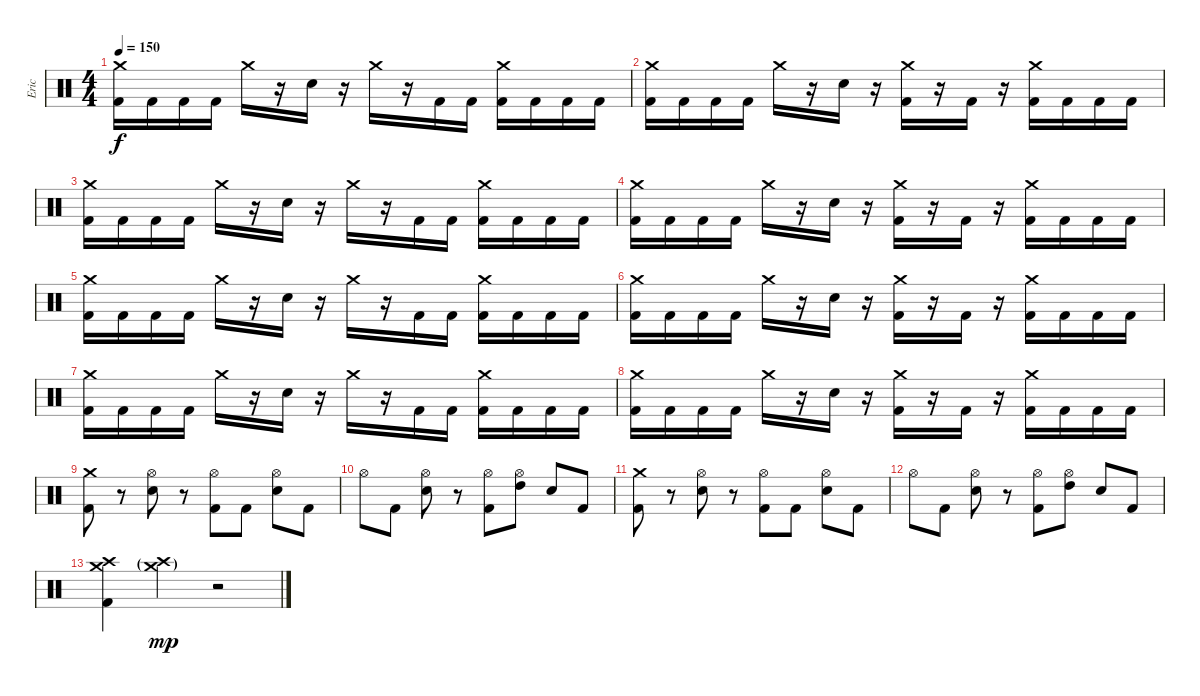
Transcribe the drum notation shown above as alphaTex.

\track ("Eric" "Eric") {instrument percussion}
\staff {score}
\articulation defaults
\ts (4 4)
\tempo 150
\clef neutral
\ks c
("Crash medium (hit)" "Kick (hit) 2").16{dy f} "Kick (hit) 2".16 "Kick (hit) 2".16 "Kick (hit) 2".16 "Crash medium (hit)".16 r.16 "Electric Snare (hit)".16 r.16 "Crash medium (hit)".16 r.16 "Kick (hit) 2".16 "Kick (hit) 2".16 ("Crash medium (hit)" "Kick (hit) 2").16 "Kick (hit) 2".16 "Kick (hit) 2".16 "Kick (hit) 2".16 |
("Crash medium (hit)" "Kick (hit) 2").16 "Kick (hit) 2".16 "Kick (hit) 2".16 "Kick (hit) 2".16 "Crash medium (hit)".16 r.16 "Electric Snare (hit)".16 r.16 ("Crash medium (hit)" "Kick (hit) 2").16 r.16 "Kick (hit) 2".16 r.16 ("Crash medium (hit)" "Kick (hit) 2").16 "Kick (hit) 2".16 "Kick (hit) 2".16 "Kick (hit) 2".16 |
("Crash medium (hit)" "Kick (hit) 2").16 "Kick (hit) 2".16 "Kick (hit) 2".16 "Kick (hit) 2".16 "Crash medium (hit)".16 r.16 "Electric Snare (hit)".16 r.16 "Crash medium (hit)".16 r.16 "Kick (hit) 2".16 "Kick (hit) 2".16 ("Crash medium (hit)" "Kick (hit) 2").16 "Kick (hit) 2".16 "Kick (hit) 2".16 "Kick (hit) 2".16 |
("Crash medium (hit)" "Kick (hit) 2").16 "Kick (hit) 2".16 "Kick (hit) 2".16 "Kick (hit) 2".16 "Crash medium (hit)".16 r.16 "Electric Snare (hit)".16 r.16 ("Crash medium (hit)" "Kick (hit) 2").16 r.16 "Kick (hit) 2".16 r.16 ("Crash medium (hit)" "Kick (hit) 2").16 "Kick (hit) 2".16 "Kick (hit) 2".16 "Kick (hit) 2".16 |
("Crash medium (hit)" "Kick (hit) 2").16 "Kick (hit) 2".16 "Kick (hit) 2".16 "Kick (hit) 2".16 "Crash medium (hit)".16 r.16 "Electric Snare (hit)".16 r.16 "Crash medium (hit)".16 r.16 "Kick (hit) 2".16 "Kick (hit) 2".16 ("Crash medium (hit)" "Kick (hit) 2").16 "Kick (hit) 2".16 "Kick (hit) 2".16 "Kick (hit) 2".16 |
("Crash medium (hit)" "Kick (hit) 2").16 "Kick (hit) 2".16 "Kick (hit) 2".16 "Kick (hit) 2".16 "Crash medium (hit)".16 r.16 "Electric Snare (hit)".16 r.16 ("Crash medium (hit)" "Kick (hit) 2").16 r.16 "Kick (hit) 2".16 r.16 ("Crash medium (hit)" "Kick (hit) 2").16 "Kick (hit) 2".16 "Kick (hit) 2".16 "Kick (hit) 2".16 |
("Crash medium (hit)" "Kick (hit) 2").16 "Kick (hit) 2".16 "Kick (hit) 2".16 "Kick (hit) 2".16 "Crash medium (hit)".16 r.16 "Electric Snare (hit)".16 r.16 "Crash medium (hit)".16 r.16 "Kick (hit) 2".16 "Kick (hit) 2".16 ("Crash medium (hit)" "Kick (hit) 2").16 "Kick (hit) 2".16 "Kick (hit) 2".16 "Kick (hit) 2".16 |
("Crash medium (hit)" "Kick (hit) 2").16 "Kick (hit) 2".16 "Kick (hit) 2".16 "Kick (hit) 2".16 "Crash medium (hit)".16 r.16 "Electric Snare (hit)".16 r.16 ("Crash medium (hit)" "Kick (hit) 2").16 r.16 "Kick (hit) 2".16 r.16 ("Crash medium (hit)" "Kick (hit) 2").16 "Kick (hit) 2".16 "Kick (hit) 2".16 "Kick (hit) 2".16 |
("Crash medium (hit)" "Kick (hit) 2").8 r.8 ("Hi-Hat (open)" "Electric Snare (hit)").8 r.8 ("Hi-Hat (open)" "Kick (hit) 2").8 "Kick (hit) 2".8 ("Hi-Hat (open)" "Electric Snare (hit)").8 "Kick (hit) 2".8 |
"Hi-Hat (open)".8 "Kick (hit) 2".8 ("Hi-Hat (open)" "Electric Snare (hit)").8 r.8 ("Hi-Hat (open)" "Kick (hit) 2").8 ("Hi-Hat (open)" "High Tom (hit)").8 "Electric Snare (hit)".8 "Kick (hit) 2".8 |
("Crash medium (hit)" "Kick (hit) 2").8 r.8 ("Hi-Hat (open)" "Electric Snare (hit)").8 r.8 ("Hi-Hat (open)" "Kick (hit) 2").8 "Kick (hit) 2".8 ("Hi-Hat (open)" "Electric Snare (hit)").8 "Kick (hit) 2".8 |
"Hi-Hat (open)".8 "Kick (hit) 2".8 ("Hi-Hat (open)" "Electric Snare (hit)").8 r.8 ("Hi-Hat (open)" "Kick (hit) 2").8 ("Hi-Hat (open)" "High Tom (hit)").8 "Electric Snare (hit)".8 "Kick (hit) 2".8 |
("Crash high (hit)" "Crash medium (hit)" "Kick (hit) 2").4 ("Crash high (hit)"{g} "Crash medium (hit)"{g}).4{dy mp} r.2
